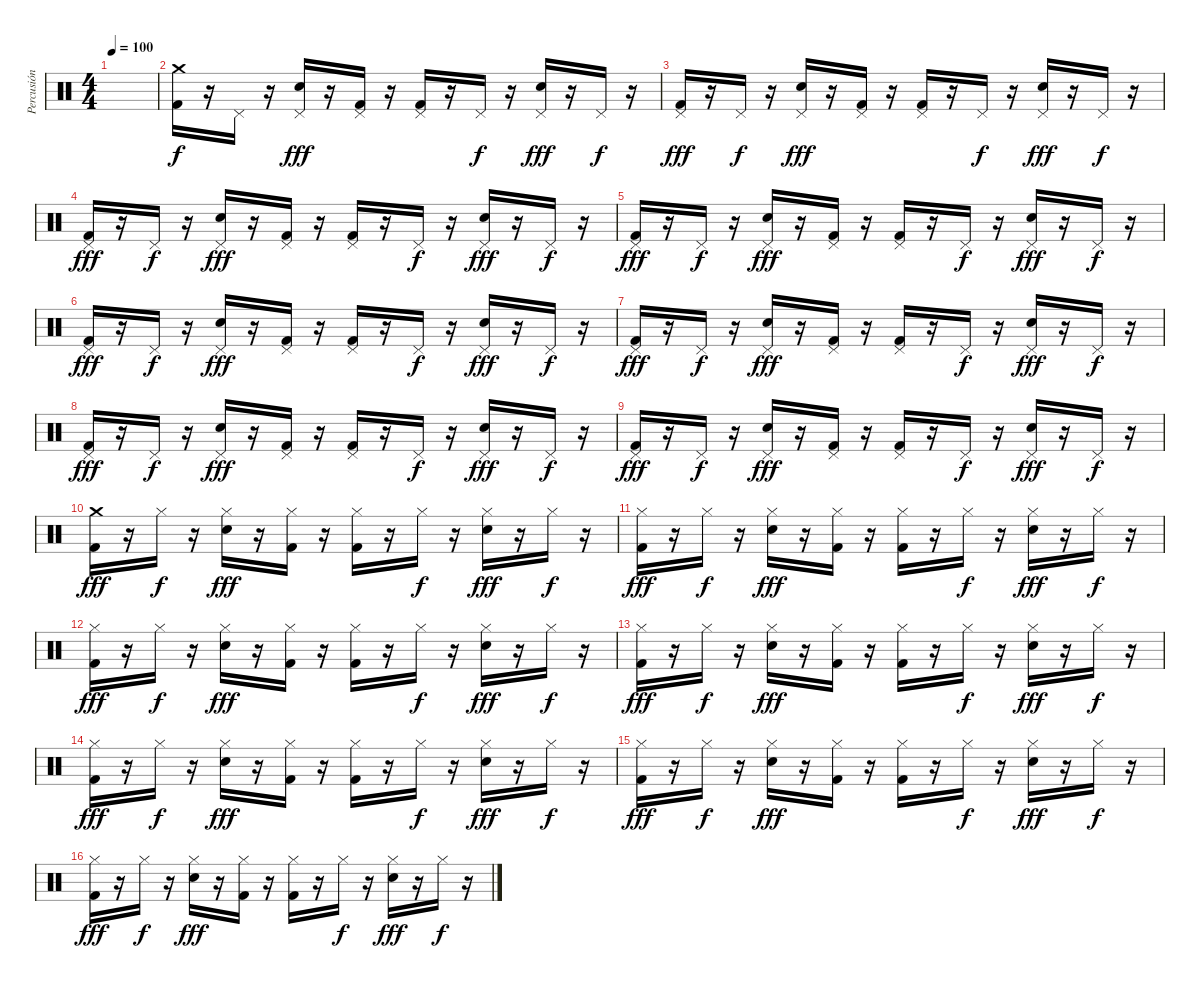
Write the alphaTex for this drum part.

\track ("Percusión" "Percusión") {instrument percussion}
\staff {score}
\articulation defaults
\ts (4 4)
\tempo 100
\clef neutral
\ks c
|
("Crash medium (hit)" "Kick (hit) 2").16 r.16 "Pedal Hi-Hat (hit)".16{dy f} r.16 ("Pedal Hi-Hat (hit)" "Electric Snare (hit)").16{dy fff} r.16 ("Pedal Hi-Hat (hit)" "Kick (hit) 2").16 r.16 ("Pedal Hi-Hat (hit)" "Kick (hit) 2").16 r.16 "Pedal Hi-Hat (hit)".16{dy f} r.16 ("Pedal Hi-Hat (hit)" "Electric Snare (hit)").16{dy fff} r.16 "Pedal Hi-Hat (hit)".16{dy f} r.16 |
("Pedal Hi-Hat (hit)" "Kick (hit) 2").16{dy fff} r.16 "Pedal Hi-Hat (hit)".16{dy f} r.16 ("Pedal Hi-Hat (hit)" "Electric Snare (hit)").16{dy fff} r.16 ("Pedal Hi-Hat (hit)" "Kick (hit) 2").16 r.16 ("Pedal Hi-Hat (hit)" "Kick (hit) 2").16 r.16 "Pedal Hi-Hat (hit)".16{dy f} r.16 ("Pedal Hi-Hat (hit)" "Electric Snare (hit)").16{dy fff} r.16 "Pedal Hi-Hat (hit)".16{dy f} r.16 |
("Pedal Hi-Hat (hit)" "Kick (hit) 2").16{dy fff} r.16 "Pedal Hi-Hat (hit)".16{dy f} r.16 ("Pedal Hi-Hat (hit)" "Electric Snare (hit)").16{dy fff} r.16 ("Pedal Hi-Hat (hit)" "Kick (hit) 2").16 r.16 ("Pedal Hi-Hat (hit)" "Kick (hit) 2").16 r.16 "Pedal Hi-Hat (hit)".16{dy f} r.16 ("Pedal Hi-Hat (hit)" "Electric Snare (hit)").16{dy fff} r.16 "Pedal Hi-Hat (hit)".16{dy f} r.16 |
("Pedal Hi-Hat (hit)" "Kick (hit) 2").16{dy fff} r.16 "Pedal Hi-Hat (hit)".16{dy f} r.16 ("Pedal Hi-Hat (hit)" "Electric Snare (hit)").16{dy fff} r.16 ("Pedal Hi-Hat (hit)" "Kick (hit) 2").16 r.16 ("Pedal Hi-Hat (hit)" "Kick (hit) 2").16 r.16 "Pedal Hi-Hat (hit)".16{dy f} r.16 ("Pedal Hi-Hat (hit)" "Electric Snare (hit)").16{dy fff} r.16 "Pedal Hi-Hat (hit)".16{dy f} r.16 |
("Pedal Hi-Hat (hit)" "Kick (hit) 2").16{dy fff} r.16 "Pedal Hi-Hat (hit)".16{dy f} r.16 ("Pedal Hi-Hat (hit)" "Electric Snare (hit)").16{dy fff} r.16 ("Pedal Hi-Hat (hit)" "Kick (hit) 2").16 r.16 ("Pedal Hi-Hat (hit)" "Kick (hit) 2").16 r.16 "Pedal Hi-Hat (hit)".16{dy f} r.16 ("Pedal Hi-Hat (hit)" "Electric Snare (hit)").16{dy fff} r.16 "Pedal Hi-Hat (hit)".16{dy f} r.16 |
("Pedal Hi-Hat (hit)" "Kick (hit) 2").16{dy fff} r.16 "Pedal Hi-Hat (hit)".16{dy f} r.16 ("Pedal Hi-Hat (hit)" "Electric Snare (hit)").16{dy fff} r.16 ("Pedal Hi-Hat (hit)" "Kick (hit) 2").16 r.16 ("Pedal Hi-Hat (hit)" "Kick (hit) 2").16 r.16 "Pedal Hi-Hat (hit)".16{dy f} r.16 ("Pedal Hi-Hat (hit)" "Electric Snare (hit)").16{dy fff} r.16 "Pedal Hi-Hat (hit)".16{dy f} r.16 |
("Pedal Hi-Hat (hit)" "Kick (hit) 2").16{dy fff} r.16 "Pedal Hi-Hat (hit)".16{dy f} r.16 ("Pedal Hi-Hat (hit)" "Electric Snare (hit)").16{dy fff} r.16 ("Pedal Hi-Hat (hit)" "Kick (hit) 2").16 r.16 ("Pedal Hi-Hat (hit)" "Kick (hit) 2").16 r.16 "Pedal Hi-Hat (hit)".16{dy f} r.16 ("Pedal Hi-Hat (hit)" "Electric Snare (hit)").16{dy fff} r.16 "Pedal Hi-Hat (hit)".16{dy f} r.16 |
("Pedal Hi-Hat (hit)" "Kick (hit) 2").16{dy fff} r.16 "Pedal Hi-Hat (hit)".16{dy f} r.16 ("Pedal Hi-Hat (hit)" "Electric Snare (hit)").16{dy fff} r.16 ("Pedal Hi-Hat (hit)" "Kick (hit) 2").16 r.16 ("Pedal Hi-Hat (hit)" "Kick (hit) 2").16 r.16 "Pedal Hi-Hat (hit)".16{dy f} r.16 ("Pedal Hi-Hat (hit)" "Electric Snare (hit)").16{dy fff} r.16 "Pedal Hi-Hat (hit)".16{dy f} r.16 |
("Crash medium (hit)" "Kick (hit) 2").16{dy fff} r.16 "Hi-Hat (closed)".16{dy f} r.16 ("Hi-Hat (closed)" "Electric Snare (hit)").16{dy fff} r.16 ("Hi-Hat (closed)" "Kick (hit) 2").16 r.16 ("Hi-Hat (closed)" "Kick (hit) 2").16 r.16 "Hi-Hat (closed)".16{dy f} r.16 ("Hi-Hat (closed)" "Electric Snare (hit)").16{dy fff} r.16 "Hi-Hat (closed)".16{dy f} r.16 |
("Hi-Hat (closed)" "Kick (hit) 2").16{dy fff} r.16 "Hi-Hat (closed)".16{dy f} r.16 ("Hi-Hat (closed)" "Electric Snare (hit)").16{dy fff} r.16 ("Hi-Hat (closed)" "Kick (hit) 2").16 r.16 ("Hi-Hat (closed)" "Kick (hit) 2").16 r.16 "Hi-Hat (closed)".16{dy f} r.16 ("Hi-Hat (closed)" "Electric Snare (hit)").16{dy fff} r.16 "Hi-Hat (closed)".16{dy f} r.16 |
("Hi-Hat (closed)" "Kick (hit) 2").16{dy fff} r.16 "Hi-Hat (closed)".16{dy f} r.16 ("Hi-Hat (closed)" "Electric Snare (hit)").16{dy fff} r.16 ("Hi-Hat (closed)" "Kick (hit) 2").16 r.16 ("Hi-Hat (closed)" "Kick (hit) 2").16 r.16 "Hi-Hat (closed)".16{dy f} r.16 ("Hi-Hat (closed)" "Electric Snare (hit)").16{dy fff} r.16 "Hi-Hat (closed)".16{dy f} r.16 |
("Hi-Hat (closed)" "Kick (hit) 2").16{dy fff} r.16 "Hi-Hat (closed)".16{dy f} r.16 ("Hi-Hat (closed)" "Electric Snare (hit)").16{dy fff} r.16 ("Hi-Hat (closed)" "Kick (hit) 2").16 r.16 ("Hi-Hat (closed)" "Kick (hit) 2").16 r.16 "Hi-Hat (closed)".16{dy f} r.16 ("Hi-Hat (closed)" "Electric Snare (hit)").16{dy fff} r.16 "Hi-Hat (closed)".16{dy f} r.16 |
("Hi-Hat (closed)" "Kick (hit) 2").16{dy fff} r.16 "Hi-Hat (closed)".16{dy f} r.16 ("Hi-Hat (closed)" "Electric Snare (hit)").16{dy fff} r.16 ("Hi-Hat (closed)" "Kick (hit) 2").16 r.16 ("Hi-Hat (closed)" "Kick (hit) 2").16 r.16 "Hi-Hat (closed)".16{dy f} r.16 ("Hi-Hat (closed)" "Electric Snare (hit)").16{dy fff} r.16 "Hi-Hat (closed)".16{dy f} r.16 |
("Hi-Hat (closed)" "Kick (hit) 2").16{dy fff} r.16 "Hi-Hat (closed)".16{dy f} r.16 ("Hi-Hat (closed)" "Electric Snare (hit)").16{dy fff} r.16 ("Hi-Hat (closed)" "Kick (hit) 2").16 r.16 ("Hi-Hat (closed)" "Kick (hit) 2").16 r.16 "Hi-Hat (closed)".16{dy f} r.16 ("Hi-Hat (closed)" "Electric Snare (hit)").16{dy fff} r.16 "Hi-Hat (closed)".16{dy f} r.16 |
("Hi-Hat (closed)" "Kick (hit) 2").16{dy fff} r.16 "Hi-Hat (closed)".16{dy f} r.16 ("Hi-Hat (closed)" "Electric Snare (hit)").16{dy fff} r.16 ("Hi-Hat (closed)" "Kick (hit) 2").16 r.16 ("Hi-Hat (closed)" "Kick (hit) 2").16 r.16 "Hi-Hat (closed)".16{dy f} r.16 ("Hi-Hat (closed)" "Electric Snare (hit)").16{dy fff} r.16 "Hi-Hat (closed)".16{dy f} r.16
